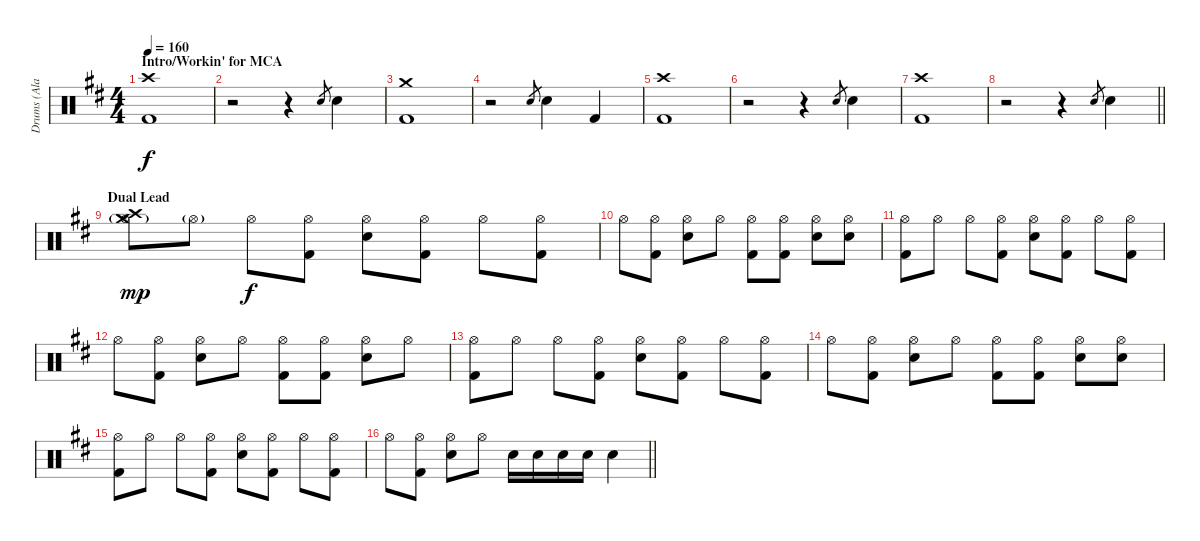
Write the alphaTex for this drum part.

\track ("Drums (Ala Burns)" "Drums (Ala") {instrument percussion}
\staff {score}
\articulation defaults
\ts (4 4)
\section ("" "Intro/Workin' for MCA")
\tempo 160
\clef neutral
\ks d
("Crash high (hit)" "Kick (hit) 2").1{dy f} |
r.2 r.4 "Snare (hit) 2".8{gr} "Snare (hit) 2".4 |
("Crash medium (hit)" "Kick (hit) 2").1 |
r.2 "Snare (hit) 2".8{gr} "Snare (hit) 2".4 "Kick (hit) 2".4 |
("Crash high (hit)" "Kick (hit) 2").1 |
r.2 r.4 "Snare (hit) 2".8{gr} "Snare (hit) 2".4 |
("Crash high (hit)" "Kick (hit) 2").1 |
\barLineRight lightlight
r.2 r.4 "Snare (hit) 2".8{gr} "Snare (hit) 2".4 |
\section ("" "Dual Lead")
("Crash medium (hit)" "Crash high (hit)" "Hi-Hat (open)"{g}).8{dy mp} "Hi-Hat (open)"{g}.8 "Hi-Hat (open)".8{dy f} ("Hi-Hat (open)" "Kick (hit) 2").8 ("Snare (hit) 2" "Hi-Hat (open)").8 ("Hi-Hat (open)" "Kick (hit) 2").8 "Hi-Hat (open)".8 ("Hi-Hat (open)" "Kick (hit) 2").8 |
"Hi-Hat (open)".8 ("Hi-Hat (open)" "Kick (hit) 2").8 ("Snare (hit) 2" "Hi-Hat (open)").8 "Hi-Hat (open)".8 ("Hi-Hat (open)" "Kick (hit) 2").8 ("Hi-Hat (open)" "Kick (hit) 2").8 ("Snare (hit) 2" "Hi-Hat (open)").8 ("Snare (hit) 2" "Hi-Hat (open)").8 |
("Hi-Hat (open)" "Kick (hit) 2").8 "Hi-Hat (open)".8 "Hi-Hat (open)".8 ("Hi-Hat (open)" "Kick (hit) 2").8 ("Snare (hit) 2" "Hi-Hat (open)").8 ("Hi-Hat (open)" "Kick (hit) 2").8 "Hi-Hat (open)".8 ("Hi-Hat (open)" "Kick (hit) 2").8 |
"Hi-Hat (open)".8 ("Hi-Hat (open)" "Kick (hit) 2").8 ("Snare (hit) 2" "Hi-Hat (open)").8 "Hi-Hat (open)".8 ("Hi-Hat (open)" "Kick (hit) 2").8 ("Hi-Hat (open)" "Kick (hit) 2").8 ("Snare (hit) 2" "Hi-Hat (open)").8 "Hi-Hat (open)".8 |
("Hi-Hat (open)" "Kick (hit) 2").8 "Hi-Hat (open)".8 "Hi-Hat (open)".8 ("Hi-Hat (open)" "Kick (hit) 2").8 ("Snare (hit) 2" "Hi-Hat (open)").8 ("Hi-Hat (open)" "Kick (hit) 2").8 "Hi-Hat (open)".8 ("Hi-Hat (open)" "Kick (hit) 2").8 |
"Hi-Hat (open)".8 ("Hi-Hat (open)" "Kick (hit) 2").8 ("Snare (hit) 2" "Hi-Hat (open)").8 "Hi-Hat (open)".8 ("Hi-Hat (open)" "Kick (hit) 2").8 ("Hi-Hat (open)" "Kick (hit) 2").8 ("Snare (hit) 2" "Hi-Hat (open)").8 ("Snare (hit) 2" "Hi-Hat (open)").8 |
("Hi-Hat (open)" "Kick (hit) 2").8 "Hi-Hat (open)".8 "Hi-Hat (open)".8 ("Hi-Hat (open)" "Kick (hit) 2").8 ("Snare (hit) 2" "Hi-Hat (open)").8 ("Hi-Hat (open)" "Kick (hit) 2").8 "Hi-Hat (open)".8 ("Hi-Hat (open)" "Kick (hit) 2").8 |
\barLineRight lightlight "Hi-Hat (open)".8
("Hi-Hat (open)" "Kick (hit) 2").8 ("Snare (hit) 2" "Hi-Hat (open)").8 "Hi-Hat (open)".8 "Snare (hit) 2".16 "Snare (hit) 2".16 "Snare (hit) 2".16 "Snare (hit) 2".16 "Snare (hit) 2".4
